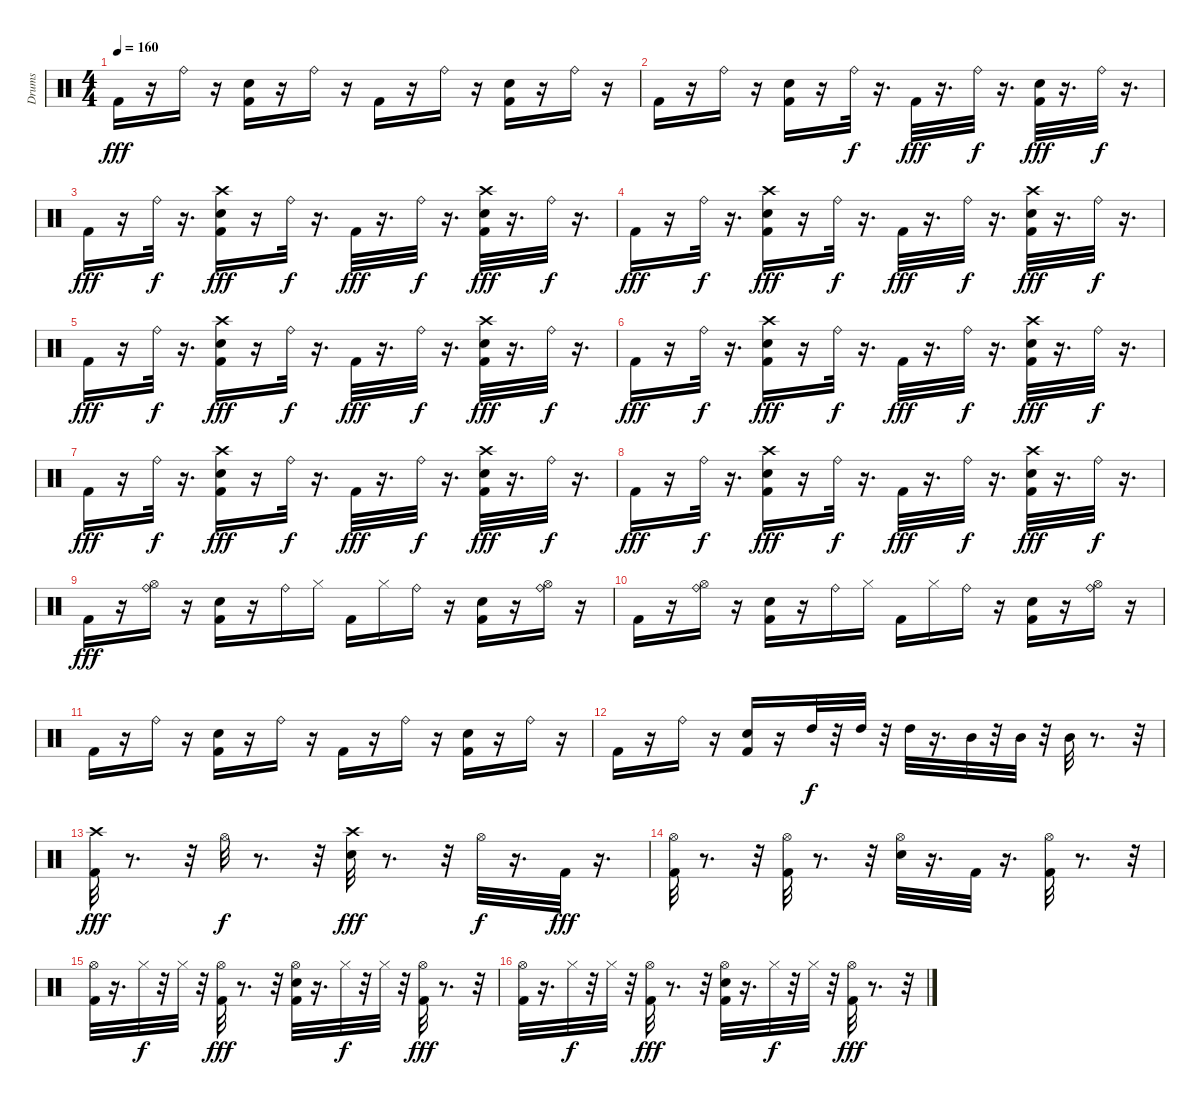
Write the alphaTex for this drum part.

\track ("Drums" "Drums") {instrument percussion}
\staff {score}
\articulation defaults
\ts (4 4)
\tempo 160
\clef neutral
\ks c "Kick (hit) 2".16{dy fff}
r.16 "Ride (bell)".16 r.16 ("Electric Snare (hit)" "Kick (hit) 2").16 r.16 "Ride (bell)".16 r.16 "Kick (hit) 2".16 r.16 "Ride (bell)".16 r.16 ("Electric Snare (hit)" "Kick (hit) 2").16 r.16 "Ride (bell)".16 r.16 |
"Kick (hit) 2".16 r.16 "Ride (bell)".16 r.16 ("Electric Snare (hit)" "Kick (hit) 2").16 r.16 "Ride (bell)".32{dy f} r.16{d} "Kick (hit) 2".32{dy fff} r.16{d} "Ride (bell)".32{dy f} r.16{d} ("Kick (hit) 2" "Electric Snare (hit)").32{dy fff} r.16{d} "Ride (bell)".32{dy f} r.16{d} |
"Kick (hit) 2".16{dy fff} r.16 "Ride (bell)".32{dy f} r.16{d} ("Crash high (hit)" "Electric Snare (hit)" "Kick (hit) 2").16{dy fff} r.16 "Ride (bell)".32{dy f} r.16{d} "Kick (hit) 2".32{dy fff} r.16{d} "Ride (bell)".32{dy f} r.16{d} ("Crash high (hit)" "Kick (hit) 2" "Electric Snare (hit)").32{dy fff} r.16{d} "Ride (bell)".32{dy f} r.16{d} |
"Kick (hit) 2".16{dy fff} r.16 "Ride (bell)".32{dy f} r.16{d} ("Crash high (hit)" "Electric Snare (hit)" "Kick (hit) 2").16{dy fff} r.16 "Ride (bell)".32{dy f} r.16{d} "Kick (hit) 2".32{dy fff} r.16{d} "Ride (bell)".32{dy f} r.16{d} ("Crash high (hit)" "Kick (hit) 2" "Electric Snare (hit)").32{dy fff} r.16{d} "Ride (bell)".32{dy f} r.16{d} |
"Kick (hit) 2".16{dy fff} r.16 "Ride (bell)".32{dy f} r.16{d} ("Crash high (hit)" "Electric Snare (hit)" "Kick (hit) 2").16{dy fff} r.16 "Ride (bell)".32{dy f} r.16{d} "Kick (hit) 2".32{dy fff} r.16{d} "Ride (bell)".32{dy f} r.16{d} ("Crash high (hit)" "Kick (hit) 2" "Electric Snare (hit)").32{dy fff} r.16{d} "Ride (bell)".32{dy f} r.16{d} |
"Kick (hit) 2".16{dy fff} r.16 "Ride (bell)".32{dy f} r.16{d} ("Crash high (hit)" "Electric Snare (hit)" "Kick (hit) 2").16{dy fff} r.16 "Ride (bell)".32{dy f} r.16{d} "Kick (hit) 2".32{dy fff} r.16{d} "Ride (bell)".32{dy f} r.16{d} ("Crash high (hit)" "Kick (hit) 2" "Electric Snare (hit)").32{dy fff} r.16{d} "Ride (bell)".32{dy f} r.16{d} |
"Kick (hit) 2".16{dy fff} r.16 "Ride (bell)".32{dy f} r.16{d} ("Crash high (hit)" "Electric Snare (hit)" "Kick (hit) 2").16{dy fff} r.16 "Ride (bell)".32{dy f} r.16{d} "Kick (hit) 2".32{dy fff} r.16{d} "Ride (bell)".32{dy f} r.16{d} ("Crash high (hit)" "Kick (hit) 2" "Electric Snare (hit)").32{dy fff} r.16{d} "Ride (bell)".32{dy f} r.16{d} |
"Kick (hit) 2".16{dy fff} r.16 "Ride (bell)".32{dy f} r.16{d} ("Crash high (hit)" "Electric Snare (hit)" "Kick (hit) 2").16{dy fff} r.16 "Ride (bell)".32{dy f} r.16{d} "Kick (hit) 2".32{dy fff} r.16{d} "Ride (bell)".32{dy f} r.16{d} ("Crash high (hit)" "Kick (hit) 2" "Electric Snare (hit)").32{dy fff} r.16{d} "Ride (bell)".32{dy f} r.16{d} |
"Kick (hit) 2".16{dy fff} r.16 ("Ride (bell)" "Hi-Hat (open)").16 r.16 ("Kick (hit) 2" "Electric Snare (hit)").16 r.16 "Ride (bell)".16 "Hi-Hat (closed)".16 "Kick (hit) 2".16 "Hi-Hat (closed)".16 "Ride (bell)".16 r.16 ("Kick (hit) 2" "Electric Snare (hit)").16 r.16 ("Ride (bell)" "Hi-Hat (open)").16 r.16 |
"Kick (hit) 2".16 r.16 ("Hi-Hat (open)" "Ride (bell)").16 r.16 ("Kick (hit) 2" "Electric Snare (hit)").16 r.16 "Ride (bell)".16 "Hi-Hat (closed)".16 "Kick (hit) 2".16 "Hi-Hat (closed)".16 "Ride (bell)".16 r.16 ("Electric Snare (hit)" "Kick (hit) 2").16 r.16 ("Hi-Hat (open)" "Ride (bell)").16 r.16 |
"Kick (hit) 2".16 r.16 "Ride (bell)".16 r.16 ("Kick (hit) 2" "Electric Snare (hit)").16 r.16 "Ride (bell)".16 r.16 "Kick (hit) 2".16 r.16 "Ride (bell)".16 r.16 ("Electric Snare (hit)" "Kick (hit) 2").16 r.16 "Ride (bell)".16 r.16 |
"Kick (hit) 2".16 r.16 "Ride (bell)".16 r.16 ("Electric Snare (hit)" "Kick (hit) 2").16 r.16 "High Tom (hit)".32{dy f} r.32 "High Tom (hit)".32 r.32 "High Tom (hit)".32 r.16{d} "Mid Tom (hit)".32 r.32 "Mid Tom (hit)".32 r.32 "Mid Tom (hit)".32 r.8{d} r.32 |
("Crash high (hit)" "Kick (hit) 2").32{dy fff} r.8{d} r.32 "Hi-Hat (open)".32{dy f} r.8{d} r.32 ("Crash high (hit)" "Electric Snare (hit)").32{dy fff} r.8{d} r.32 "Hi-Hat (open)".32{dy f} r.16{d} "Kick (hit) 2".32{dy fff} r.16{d} |
("Hi-Hat (open)" "Kick (hit) 2").32 r.8{d} r.32 ("Hi-Hat (open)" "Kick (hit) 2").32 r.8{d} r.32 ("Hi-Hat (open)" "Electric Snare (hit)").32 r.16{d} "Kick (hit) 2".32 r.16{d} ("Hi-Hat (open)" "Kick (hit) 2").32 r.8{d} r.32 |
("Hi-Hat (open)" "Kick (hit) 2").32 r.16{d} "Hi-Hat (closed)".32{dy f} r.32 "Hi-Hat (closed)".32 r.32 ("Hi-Hat (open)" "Kick (hit) 2").32{dy fff} r.8{d} r.32 ("Hi-Hat (open)" "Electric Snare (hit)" "Kick (hit) 2").32 r.16{d} "Hi-Hat (closed)".32{dy f} r.32 "Hi-Hat (closed)".32 r.32 ("Hi-Hat (open)" "Kick (hit) 2").32{dy fff} r.8{d} r.32 |
("Hi-Hat (open)" "Kick (hit) 2").32 r.16{d} "Hi-Hat (closed)".32{dy f} r.32 "Hi-Hat (closed)".32 r.32 ("Hi-Hat (open)" "Kick (hit) 2").32{dy fff} r.8{d} r.32 ("Hi-Hat (open)" "Electric Snare (hit)" "Kick (hit) 2").32 r.16{d} "Hi-Hat (closed)".32{dy f} r.32 "Hi-Hat (closed)".32 r.32 ("Hi-Hat (open)" "Kick (hit) 2").32{dy fff} r.8{d} r.32
